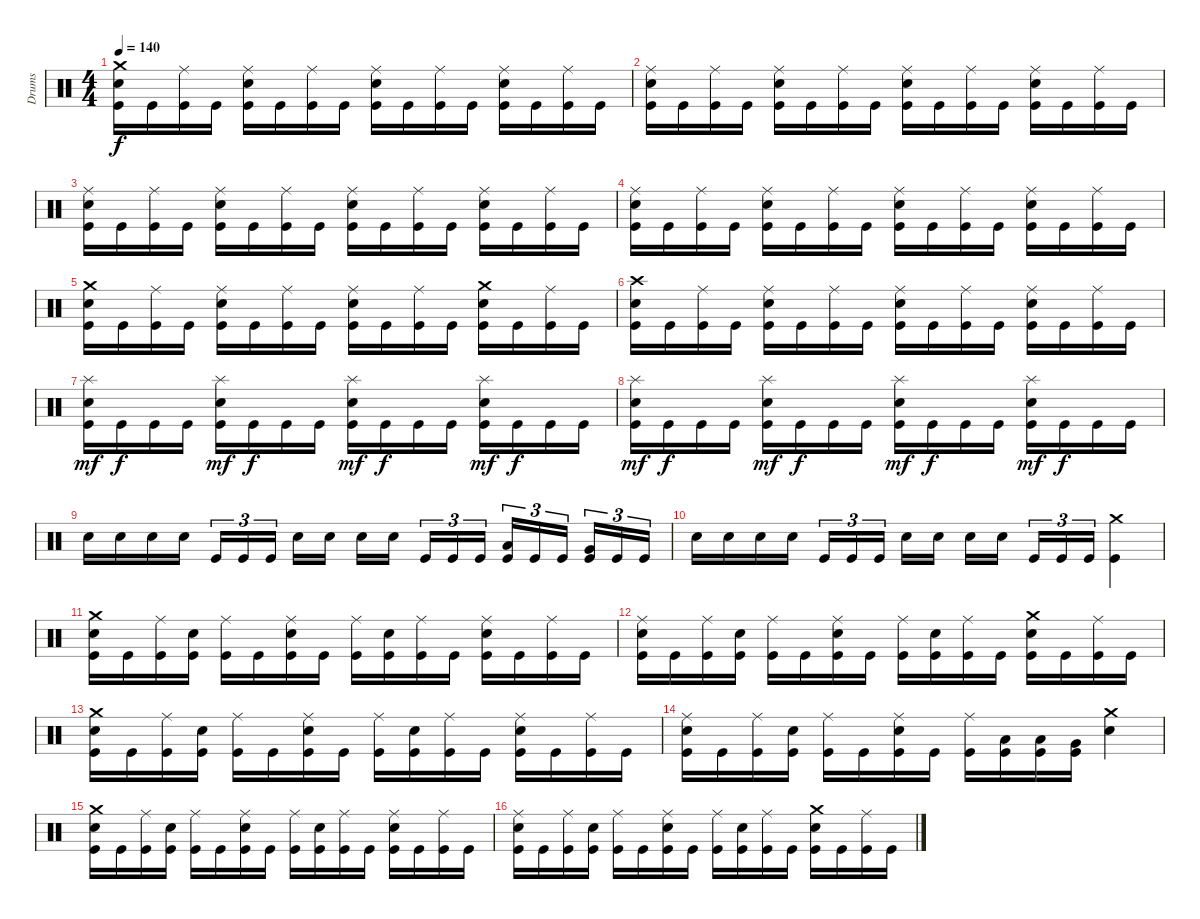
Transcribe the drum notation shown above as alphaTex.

\track ("Drums" "Drums") {instrument percussion}
\staff {score}
\articulation defaults
\ts (4 4)
\tempo 140
\clef neutral
\ks c
("Kick (hit)" "Electric Snare (hit)" "Crash medium (hit)").16{dy f} "Kick (hit)".16 ("Kick (hit)" "Ride (middle)").16 "Kick (hit)".16 ("Kick (hit)" "Electric Snare (hit)" "Ride (middle)").16 "Kick (hit)".16 ("Kick (hit)" "Ride (middle)").16 "Kick (hit)".16 ("Kick (hit)" "Electric Snare (hit)" "Ride (middle)").16 "Kick (hit)".16 ("Kick (hit)" "Ride (middle)").16 "Kick (hit)".16 ("Kick (hit)" "Electric Snare (hit)" "Ride (middle)").16 "Kick (hit)".16 ("Kick (hit)" "Ride (middle)").16 "Kick (hit)".16 |
("Kick (hit)" "Electric Snare (hit)" "Ride (middle)").16 "Kick (hit)".16 ("Kick (hit)" "Ride (middle)").16 "Kick (hit)".16 ("Kick (hit)" "Electric Snare (hit)" "Ride (middle)").16 "Kick (hit)".16 ("Kick (hit)" "Ride (middle)").16 "Kick (hit)".16 ("Kick (hit)" "Electric Snare (hit)" "Ride (middle)").16 "Kick (hit)".16 ("Kick (hit)" "Ride (middle)").16 "Kick (hit)".16 ("Kick (hit)" "Electric Snare (hit)" "Ride (middle)").16 "Kick (hit)".16 ("Kick (hit)" "Ride (middle)").16 "Kick (hit)".16 |
("Kick (hit)" "Electric Snare (hit)" "Ride (middle)").16 "Kick (hit)".16 ("Kick (hit)" "Ride (middle)").16 "Kick (hit)".16 ("Kick (hit)" "Electric Snare (hit)" "Ride (middle)").16 "Kick (hit)".16 ("Kick (hit)" "Ride (middle)").16 "Kick (hit)".16 ("Kick (hit)" "Electric Snare (hit)" "Ride (middle)").16 "Kick (hit)".16 ("Kick (hit)" "Ride (middle)").16 "Kick (hit)".16 ("Kick (hit)" "Electric Snare (hit)" "Ride (middle)").16 "Kick (hit)".16 ("Kick (hit)" "Ride (middle)").16 "Kick (hit)".16 |
("Kick (hit)" "Electric Snare (hit)" "Ride (middle)").16 "Kick (hit)".16 ("Kick (hit)" "Ride (middle)").16 "Kick (hit)".16 ("Kick (hit)" "Electric Snare (hit)" "Ride (middle)").16 "Kick (hit)".16 ("Kick (hit)" "Ride (middle)").16 "Kick (hit)".16 ("Kick (hit)" "Electric Snare (hit)" "Ride (middle)").16 "Kick (hit)".16 ("Kick (hit)" "Ride (middle)").16 "Kick (hit)".16 ("Kick (hit)" "Electric Snare (hit)" "Ride (middle)").16 "Kick (hit)".16 ("Kick (hit)" "Ride (middle)").16 "Kick (hit)".16 |
("Kick (hit)" "Electric Snare (hit)" "Crash medium (hit)").16 "Kick (hit)".16 ("Kick (hit)" "Ride (middle)").16 "Kick (hit)".16 ("Kick (hit)" "Electric Snare (hit)" "Ride (middle)").16 "Kick (hit)".16 ("Kick (hit)" "Ride (middle)").16 "Kick (hit)".16 ("Kick (hit)" "Electric Snare (hit)" "Ride (middle)").16 "Kick (hit)".16 ("Kick (hit)" "Ride (middle)").16 "Kick (hit)".16 ("Kick (hit)" "Electric Snare (hit)" "Crash medium (hit)").16 "Kick (hit)".16 ("Kick (hit)" "Ride (middle)").16 "Kick (hit)".16 |
("Kick (hit)" "Electric Snare (hit)" "Crash high (hit)").16 "Kick (hit)".16 ("Kick (hit)" "Ride (middle)").16 "Kick (hit)".16 ("Kick (hit)" "Electric Snare (hit)" "Ride (middle)").16 "Kick (hit)".16 ("Kick (hit)" "Ride (middle)").16 "Kick (hit)".16 ("Kick (hit)" "Electric Snare (hit)" "Ride (middle)").16 "Kick (hit)".16 ("Kick (hit)" "Ride (middle)").16 "Kick (hit)".16 ("Kick (hit)" "Electric Snare (hit)" "Ride (middle)").16 "Kick (hit)".16 ("Kick (hit)" "Ride (middle)").16 "Kick (hit)".16 |
("Kick (hit)" "Electric Snare (hit)" "Splash (hit)").16{dy mf} "Kick (hit)".16{dy f} "Kick (hit)".16 "Kick (hit)".16 ("Kick (hit)" "Electric Snare (hit)" "Splash (hit)").16{dy mf} "Kick (hit)".16{dy f} "Kick (hit)".16 "Kick (hit)".16 ("Kick (hit)" "Electric Snare (hit)" "Splash (hit)").16{dy mf} "Kick (hit)".16{dy f} "Kick (hit)".16 "Kick (hit)".16 ("Kick (hit)" "Electric Snare (hit)" "Splash (hit)").16{dy mf} "Kick (hit)".16{dy f} "Kick (hit)".16 "Kick (hit)".16 |
("Kick (hit)" "Electric Snare (hit)" "Splash (hit)").16{dy mf} "Kick (hit)".16{dy f} "Kick (hit)".16 "Kick (hit)".16 ("Kick (hit)" "Electric Snare (hit)" "Splash (hit)").16{dy mf} "Kick (hit)".16{dy f} "Kick (hit)".16 "Kick (hit)".16 ("Kick (hit)" "Electric Snare (hit)" "Splash (hit)").16{dy mf} "Kick (hit)".16{dy f} "Kick (hit)".16 "Kick (hit)".16 ("Kick (hit)" "Electric Snare (hit)" "Splash (hit)").16{dy mf} "Kick (hit)".16{dy f} "Kick (hit)".16 "Kick (hit)".16 |
"Electric Snare (hit)".16 "Electric Snare (hit)".16 "Electric Snare (hit)".16 "Electric Snare (hit)".16 "Kick (hit)".16{tu (3 2)} "Kick (hit)".16{tu (3 2)} "Kick (hit)".16{tu (3 2)} "Electric Snare (hit)".16 "Electric Snare (hit)".16 "Electric Snare (hit)".16 "Electric Snare (hit)".16 "Kick (hit)".16{tu (3 2)} "Kick (hit)".16{tu (3 2)} "Kick (hit)".16{tu (3 2)} ("Kick (hit)" "Low Tom (hit)").16{tu (3 2)} "Kick (hit)".16{tu (3 2)} "Kick (hit)".16{tu (3 2)} ("Kick (hit)" "Very Low Tom (hit)").16{tu (3 2)} "Kick (hit)".16{tu (3 2)} "Kick (hit)".16{tu (3 2)} |
"Electric Snare (hit)".16 "Electric Snare (hit)".16 "Electric Snare (hit)".16 "Electric Snare (hit)".16 "Kick (hit)".16{tu (3 2)} "Kick (hit)".16{tu (3 2)} "Kick (hit)".16{tu (3 2)} "Electric Snare (hit)".16 "Electric Snare (hit)".16 "Electric Snare (hit)".16 "Electric Snare (hit)".16 "Kick (hit)".16{tu (3 2)} "Kick (hit)".16{tu (3 2)} "Kick (hit)".16{tu (3 2)} ("Kick (hit)" "Crash medium (hit)").4 |
("Kick (hit)" "Electric Snare (hit)" "Crash medium (hit)").16 "Kick (hit)".16 ("Kick (hit)" "Ride (middle)").16 ("Kick (hit)" "Electric Snare (hit)").16 ("Kick (hit)" "Ride (middle)").16 "Kick (hit)".16 ("Kick (hit)" "Electric Snare (hit)" "Ride (middle)").16 "Kick (hit)".16 ("Kick (hit)" "Ride (middle)").16 ("Kick (hit)" "Electric Snare (hit)").16 ("Kick (hit)" "Ride (middle)").16 "Kick (hit)".16 ("Kick (hit)" "Electric Snare (hit)" "Ride (middle)").16 "Kick (hit)".16 ("Kick (hit)" "Ride (middle)").16 "Kick (hit)".16 |
("Kick (hit)" "Electric Snare (hit)" "Ride (middle)").16 "Kick (hit)".16 ("Kick (hit)" "Ride (middle)").16 ("Kick (hit)" "Electric Snare (hit)").16 ("Kick (hit)" "Ride (middle)").16 "Kick (hit)".16 ("Kick (hit)" "Electric Snare (hit)" "Ride (middle)").16 "Kick (hit)".16 ("Kick (hit)" "Ride (middle)").16 ("Kick (hit)" "Electric Snare (hit)").16 ("Kick (hit)" "Ride (middle)").16 "Kick (hit)".16 ("Kick (hit)" "Electric Snare (hit)" "Crash medium (hit)").16 "Kick (hit)".16 ("Kick (hit)" "Ride (middle)").16 "Kick (hit)".16 |
("Kick (hit)" "Electric Snare (hit)" "Crash medium (hit)").16 "Kick (hit)".16 ("Kick (hit)" "Ride (middle)").16 ("Kick (hit)" "Electric Snare (hit)").16 ("Kick (hit)" "Ride (middle)").16 "Kick (hit)".16 ("Kick (hit)" "Electric Snare (hit)" "Ride (middle)").16 "Kick (hit)".16 ("Kick (hit)" "Ride (middle)").16 ("Kick (hit)" "Electric Snare (hit)").16 ("Kick (hit)" "Ride (middle)").16 "Kick (hit)".16 ("Kick (hit)" "Electric Snare (hit)" "Ride (middle)").16 "Kick (hit)".16 ("Kick (hit)" "Ride (middle)").16 "Kick (hit)".16 |
("Kick (hit)" "Electric Snare (hit)" "Ride (middle)").16 "Kick (hit)".16 ("Kick (hit)" "Ride (middle)").16 ("Kick (hit)" "Electric Snare (hit)").16 ("Kick (hit)" "Ride (middle)").16 "Kick (hit)".16 ("Kick (hit)" "Electric Snare (hit)" "Ride (middle)").16 "Kick (hit)".16 ("Kick (hit)" "Ride (middle)").16 ("Kick (hit)" "Low Tom (hit)").16 ("Kick (hit)" "Low Tom (hit)").16 ("Kick (hit)" "Very Low Tom (hit)").16 ("Electric Snare (hit)" "Crash medium (hit)").4 |
("Kick (hit)" "Electric Snare (hit)" "Crash medium (hit)").16 "Kick (hit)".16 ("Kick (hit)" "Ride (middle)").16 ("Kick (hit)" "Electric Snare (hit)").16 ("Kick (hit)" "Ride (middle)").16 "Kick (hit)".16 ("Kick (hit)" "Electric Snare (hit)" "Ride (middle)").16 "Kick (hit)".16 ("Kick (hit)" "Ride (middle)").16 ("Kick (hit)" "Electric Snare (hit)").16 ("Kick (hit)" "Ride (middle)").16 "Kick (hit)".16 ("Kick (hit)" "Electric Snare (hit)" "Ride (middle)").16 "Kick (hit)".16 ("Kick (hit)" "Ride (middle)").16 "Kick (hit)".16 |
("Kick (hit)" "Electric Snare (hit)" "Ride (middle)").16 "Kick (hit)".16 ("Kick (hit)" "Ride (middle)").16 ("Kick (hit)" "Electric Snare (hit)").16 ("Kick (hit)" "Ride (middle)").16 "Kick (hit)".16 ("Kick (hit)" "Electric Snare (hit)" "Ride (middle)").16 "Kick (hit)".16 ("Kick (hit)" "Ride (middle)").16 ("Kick (hit)" "Electric Snare (hit)").16 ("Kick (hit)" "Ride (middle)").16 "Kick (hit)".16 ("Kick (hit)" "Electric Snare (hit)" "Crash medium (hit)").16 "Kick (hit)".16 ("Kick (hit)" "Ride (middle)").16 "Kick (hit)".16
